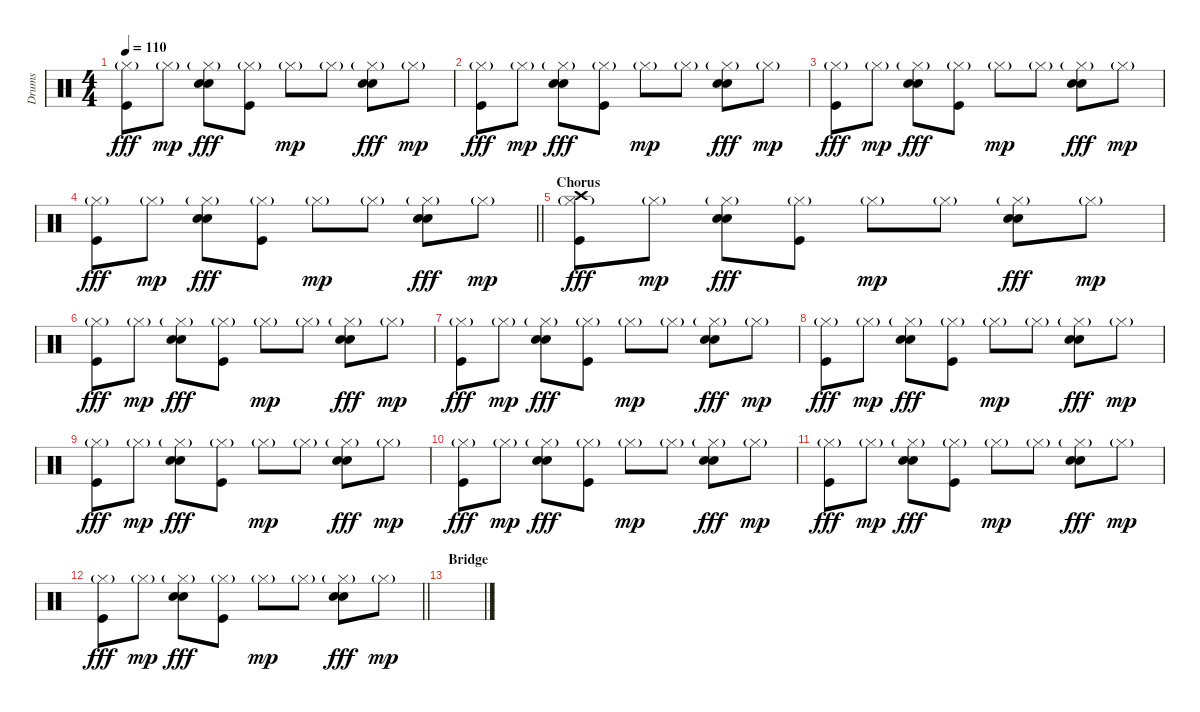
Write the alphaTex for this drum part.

\track ("Drums" "Drums") {instrument percussion}
\staff {score}
\articulation defaults
\ts (4 4)
\tempo 110
\clef neutral
\ks c
("Hi-Hat (closed)"{g} "Kick (hit)").8{dy fff} "Hi-Hat (closed)"{g}.8{dy mp} ("Hi-Hat (closed)"{g} "Electric Snare (hit)" "Hand Clap (hit)").8{dy fff} ("Hi-Hat (closed)"{g} "Kick (hit)").8 "Hi-Hat (closed)"{g}.8{dy mp} "Hi-Hat (closed)"{g}.8 ("Hi-Hat (closed)"{g} "Electric Snare (hit)" "Hand Clap (hit)").8{dy fff} "Hi-Hat (closed)"{g}.8{dy mp} |
("Hi-Hat (closed)"{g} "Kick (hit)").8{dy fff} "Hi-Hat (closed)"{g}.8{dy mp} ("Hi-Hat (closed)"{g} "Electric Snare (hit)" "Hand Clap (hit)").8{dy fff} ("Hi-Hat (closed)"{g} "Kick (hit)").8 "Hi-Hat (closed)"{g}.8{dy mp} "Hi-Hat (closed)"{g}.8 ("Hi-Hat (closed)"{g} "Electric Snare (hit)" "Hand Clap (hit)").8{dy fff} "Hi-Hat (closed)"{g}.8{dy mp} |
("Hi-Hat (closed)"{g} "Kick (hit)").8{dy fff} "Hi-Hat (closed)"{g}.8{dy mp} ("Hi-Hat (closed)"{g} "Electric Snare (hit)" "Hand Clap (hit)").8{dy fff} ("Hi-Hat (closed)"{g} "Kick (hit)").8 "Hi-Hat (closed)"{g}.8{dy mp} "Hi-Hat (closed)"{g}.8 ("Hi-Hat (closed)"{g} "Electric Snare (hit)" "Hand Clap (hit)").8{dy fff} "Hi-Hat (closed)"{g}.8{dy mp} |
\barLineRight lightlight
("Hi-Hat (closed)"{g} "Kick (hit)").8{dy fff} "Hi-Hat (closed)"{g}.8{dy mp} ("Hi-Hat (closed)"{g} "Electric Snare (hit)" "Hand Clap (hit)").8{dy fff} ("Hi-Hat (closed)"{g} "Kick (hit)").8 "Hi-Hat (closed)"{g}.8{dy mp} "Hi-Hat (closed)"{g}.8 ("Hi-Hat (closed)"{g} "Electric Snare (hit)" "Hand Clap (hit)").8{dy fff} "Hi-Hat (closed)"{g}.8{dy mp} |
\section ("" "Chorus")
("Hi-Hat (closed)"{g} "Kick (hit)" "Crash high (hit)").8{dy fff} "Hi-Hat (closed)"{g}.8{dy mp} ("Hi-Hat (closed)"{g} "Electric Snare (hit)" "Hand Clap (hit)").8{dy fff} ("Hi-Hat (closed)"{g} "Kick (hit)").8 "Hi-Hat (closed)"{g}.8{dy mp} "Hi-Hat (closed)"{g}.8 ("Hi-Hat (closed)"{g} "Electric Snare (hit)" "Hand Clap (hit)").8{dy fff} "Hi-Hat (closed)"{g}.8{dy mp} |
("Hi-Hat (closed)"{g} "Kick (hit)").8{dy fff} "Hi-Hat (closed)"{g}.8{dy mp} ("Hi-Hat (closed)"{g} "Electric Snare (hit)" "Hand Clap (hit)").8{dy fff} ("Hi-Hat (closed)"{g} "Kick (hit)").8 "Hi-Hat (closed)"{g}.8{dy mp} "Hi-Hat (closed)"{g}.8 ("Hi-Hat (closed)"{g} "Electric Snare (hit)" "Hand Clap (hit)").8{dy fff} "Hi-Hat (closed)"{g}.8{dy mp} |
("Hi-Hat (closed)"{g} "Kick (hit)").8{dy fff} "Hi-Hat (closed)"{g}.8{dy mp} ("Hi-Hat (closed)"{g} "Electric Snare (hit)" "Hand Clap (hit)").8{dy fff} ("Hi-Hat (closed)"{g} "Kick (hit)").8 "Hi-Hat (closed)"{g}.8{dy mp} "Hi-Hat (closed)"{g}.8 ("Hi-Hat (closed)"{g} "Electric Snare (hit)" "Hand Clap (hit)").8{dy fff} "Hi-Hat (closed)"{g}.8{dy mp} |
("Hi-Hat (closed)"{g} "Kick (hit)").8{dy fff} "Hi-Hat (closed)"{g}.8{dy mp} ("Hi-Hat (closed)"{g} "Electric Snare (hit)" "Hand Clap (hit)").8{dy fff} ("Hi-Hat (closed)"{g} "Kick (hit)").8 "Hi-Hat (closed)"{g}.8{dy mp} "Hi-Hat (closed)"{g}.8 ("Hi-Hat (closed)"{g} "Electric Snare (hit)" "Hand Clap (hit)").8{dy fff} "Hi-Hat (closed)"{g}.8{dy mp} |
("Hi-Hat (closed)"{g} "Kick (hit)").8{dy fff} "Hi-Hat (closed)"{g}.8{dy mp} ("Hi-Hat (closed)"{g} "Electric Snare (hit)" "Hand Clap (hit)").8{dy fff} ("Hi-Hat (closed)"{g} "Kick (hit)").8 "Hi-Hat (closed)"{g}.8{dy mp} "Hi-Hat (closed)"{g}.8 ("Hi-Hat (closed)"{g} "Electric Snare (hit)" "Hand Clap (hit)").8{dy fff} "Hi-Hat (closed)"{g}.8{dy mp} |
("Hi-Hat (closed)"{g} "Kick (hit)").8{dy fff} "Hi-Hat (closed)"{g}.8{dy mp} ("Hi-Hat (closed)"{g} "Electric Snare (hit)" "Hand Clap (hit)").8{dy fff} ("Hi-Hat (closed)"{g} "Kick (hit)").8 "Hi-Hat (closed)"{g}.8{dy mp} "Hi-Hat (closed)"{g}.8 ("Hi-Hat (closed)"{g} "Electric Snare (hit)" "Hand Clap (hit)").8{dy fff} "Hi-Hat (closed)"{g}.8{dy mp} |
("Hi-Hat (closed)"{g} "Kick (hit)").8{dy fff} "Hi-Hat (closed)"{g}.8{dy mp} ("Hi-Hat (closed)"{g} "Electric Snare (hit)" "Hand Clap (hit)").8{dy fff} ("Hi-Hat (closed)"{g} "Kick (hit)").8 "Hi-Hat (closed)"{g}.8{dy mp} "Hi-Hat (closed)"{g}.8 ("Hi-Hat (closed)"{g} "Electric Snare (hit)" "Hand Clap (hit)").8{dy fff} "Hi-Hat (closed)"{g}.8{dy mp} |
\barLineRight lightlight
("Hi-Hat (closed)"{g} "Kick (hit)").8{dy fff} "Hi-Hat (closed)"{g}.8{dy mp} ("Hi-Hat (closed)"{g} "Electric Snare (hit)" "Hand Clap (hit)").8{dy fff} ("Hi-Hat (closed)"{g} "Kick (hit)").8 "Hi-Hat (closed)"{g}.8{dy mp} "Hi-Hat (closed)"{g}.8 ("Hi-Hat (closed)"{g} "Electric Snare (hit)" "Hand Clap (hit)").8{dy fff} "Hi-Hat (closed)"{g}.8{dy mp} |
\section ("" "Bridge")
